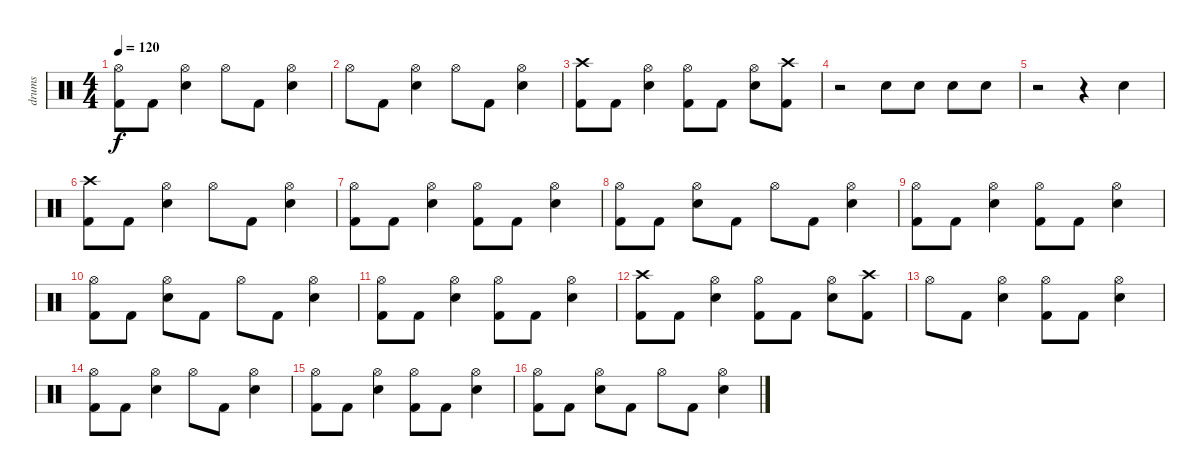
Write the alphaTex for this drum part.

\track ("drums" "drums") {instrument percussion}
\staff {score}
\articulation defaults
\ts (4 4)
\tempo 120
\clef neutral
\ks c
("Hi-Hat (open)" "Kick (hit) 2").8{dy f} "Kick (hit) 2".8 ("Hi-Hat (open)" "Electric Snare (hit)").4 "Hi-Hat (open)".8 "Kick (hit) 2".8 ("Hi-Hat (open)" "Electric Snare (hit)").4 |
"Hi-Hat (open)".8 "Kick (hit) 2".8 ("Hi-Hat (open)" "Electric Snare (hit)").4 "Hi-Hat (open)".8 "Kick (hit) 2".8 ("Hi-Hat (open)" "Electric Snare (hit)").4 |
("Crash high (hit)" "Kick (hit) 2").8 "Kick (hit) 2".8 ("Hi-Hat (open)" "Electric Snare (hit)").4 ("Hi-Hat (open)" "Kick (hit) 2").8 "Kick (hit) 2".8 ("Hi-Hat (open)" "Electric Snare (hit)").8 ("Crash high (hit)" "Kick (hit) 2").8 |
r.2 "Electric Snare (hit)".8 "Electric Snare (hit)".8 "Electric Snare (hit)".8 "Electric Snare (hit)".8 |
r.2 r.4 "Electric Snare (hit)".4 |
("Crash high (hit)" "Kick (hit) 2").8 "Kick (hit) 2".8 ("Hi-Hat (open)" "Electric Snare (hit)").4 "Hi-Hat (open)".8 "Kick (hit) 2".8 ("Hi-Hat (open)" "Electric Snare (hit)").4 |
("Hi-Hat (open)" "Kick (hit) 2").8 "Kick (hit) 2".8 ("Hi-Hat (open)" "Electric Snare (hit)").4 ("Hi-Hat (open)" "Kick (hit) 2").8 "Kick (hit) 2".8 ("Hi-Hat (open)" "Electric Snare (hit)").4 |
("Hi-Hat (open)" "Kick (hit) 2").8 "Kick (hit) 2".8 ("Hi-Hat (open)" "Electric Snare (hit)").8 "Kick (hit) 2".8 "Hi-Hat (open)".8 "Kick (hit) 2".8 ("Hi-Hat (open)" "Electric Snare (hit)").4 |
("Hi-Hat (open)" "Kick (hit) 2").8 "Kick (hit) 2".8 ("Hi-Hat (open)" "Electric Snare (hit)").4 ("Hi-Hat (open)" "Kick (hit) 2").8 "Kick (hit) 2".8 ("Hi-Hat (open)" "Electric Snare (hit)").4 |
("Hi-Hat (open)" "Kick (hit) 2").8 "Kick (hit) 2".8 ("Hi-Hat (open)" "Electric Snare (hit)").8 "Kick (hit) 2".8 "Hi-Hat (open)".8 "Kick (hit) 2".8 ("Hi-Hat (open)" "Electric Snare (hit)").4 |
("Hi-Hat (open)" "Kick (hit) 2").8 "Kick (hit) 2".8 ("Hi-Hat (open)" "Electric Snare (hit)").4 ("Hi-Hat (open)" "Kick (hit) 2").8 "Kick (hit) 2".8 ("Hi-Hat (open)" "Electric Snare (hit)").4 |
("Crash high (hit)" "Kick (hit) 2").8 "Kick (hit) 2".8 ("Hi-Hat (open)" "Electric Snare (hit)").4 ("Hi-Hat (open)" "Kick (hit) 2").8 "Kick (hit) 2".8 ("Hi-Hat (open)" "Electric Snare (hit)").8 ("Crash high (hit)" "Kick (hit) 2").8 |
"Hi-Hat (open)".8 "Kick (hit) 2".8 ("Hi-Hat (open)" "Electric Snare (hit)").4 ("Hi-Hat (open)" "Kick (hit) 2").8 "Kick (hit) 2".8 ("Hi-Hat (open)" "Electric Snare (hit)").4 |
("Hi-Hat (open)" "Kick (hit) 2").8 "Kick (hit) 2".8 ("Hi-Hat (open)" "Electric Snare (hit)").4 "Hi-Hat (open)".8 "Kick (hit) 2".8 ("Hi-Hat (open)" "Electric Snare (hit)").4 |
("Hi-Hat (open)" "Kick (hit) 2").8 "Kick (hit) 2".8 ("Hi-Hat (open)" "Electric Snare (hit)").4 ("Hi-Hat (open)" "Kick (hit) 2").8 "Kick (hit) 2".8 ("Hi-Hat (open)" "Electric Snare (hit)").4 |
("Hi-Hat (open)" "Kick (hit) 2").8 "Kick (hit) 2".8 ("Hi-Hat (open)" "Electric Snare (hit)").8 "Kick (hit) 2".8 "Hi-Hat (open)".8 "Kick (hit) 2".8 ("Hi-Hat (open)" "Electric Snare (hit)").4
